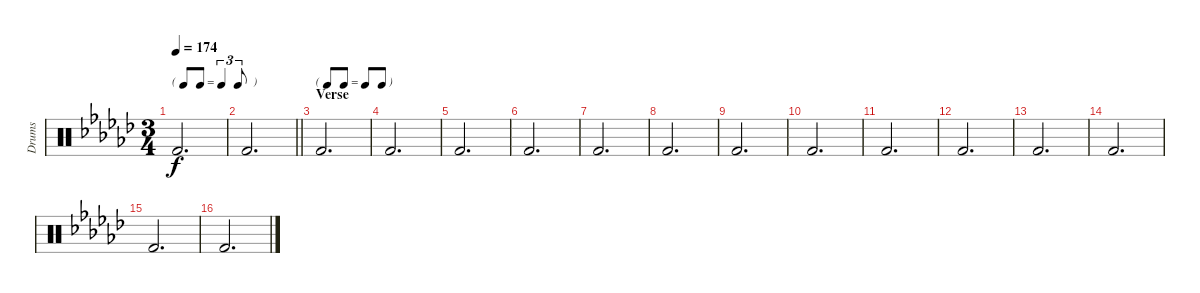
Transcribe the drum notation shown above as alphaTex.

\track ("Drums" "Drums") {instrument percussion}
\staff {score}
\articulation defaults
\ts (3 4)
\tf triplet8th
\tempo 174
\clef neutral
\ks ebminor "Kick (hit) 2".2{d dy f}
|
\barLineRight lightlight "Kick (hit) 2".2{d}
|
\tf none
\section ("" "Verse")
"Kick (hit) 2".2{d} |
"Kick (hit) 2".2{d} |
"Kick (hit) 2".2{d} |
"Kick (hit) 2".2{d} |
"Kick (hit) 2".2{d} |
"Kick (hit) 2".2{d} |
"Kick (hit) 2".2{d} |
"Kick (hit) 2".2{d} |
"Kick (hit) 2".2{d} |
"Kick (hit) 2".2{d} |
"Kick (hit) 2".2{d} |
"Kick (hit) 2".2{d} |
"Kick (hit) 2".2{d} |
"Kick (hit) 2".2{d}
